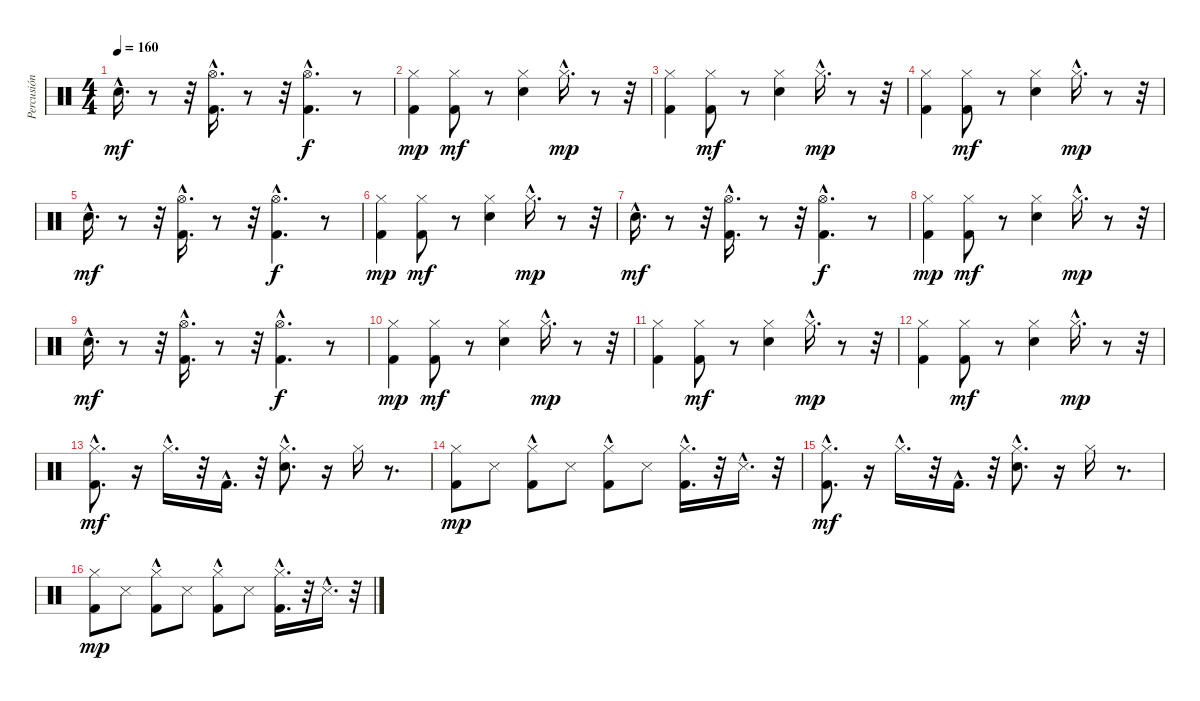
\track ("Percusión" "Percusión") {instrument percussion}
\staff {score}
\articulation defaults
\ts (4 4)
\tempo 160
\clef neutral
\ks c "Electric Snare (hit)"{hac}.16{d dy mf}
r.8 r.32 ("Kick (hit) 2"{hac} "Hi-Hat (open)").16{d} r.8 r.32 ("Kick (hit) 2"{hac} "Hi-Hat (open)"{hac}).4{d dy f} r.8 |
("Hi-Hat (closed)" "Kick (hit) 2").4{dy mp} ("Hi-Hat (closed)" "Kick (hit) 2").8{dy mf} r.8 ("Hi-Hat (closed)" "Electric Snare (hit)").4 "Hi-Hat (closed)"{hac}.16{d dy mp} r.8 r.32 |
("Hi-Hat (closed)" "Kick (hit) 2").4 ("Hi-Hat (closed)" "Kick (hit) 2").8{dy mf} r.8 ("Hi-Hat (closed)" "Electric Snare (hit)").4 "Hi-Hat (closed)"{hac}.16{d dy mp} r.8 r.32 |
("Hi-Hat (closed)" "Kick (hit) 2").4 ("Hi-Hat (closed)" "Kick (hit) 2").8{dy mf} r.8 ("Hi-Hat (closed)" "Electric Snare (hit)").4 "Hi-Hat (closed)"{hac}.16{d dy mp} r.8 r.32 |
"Electric Snare (hit)"{hac}.16{d dy mf} r.8 r.32 ("Kick (hit) 2"{hac} "Hi-Hat (open)").16{d} r.8 r.32 ("Kick (hit) 2"{hac} "Hi-Hat (open)"{hac}).4{d dy f} r.8 |
("Hi-Hat (closed)" "Kick (hit) 2").4{dy mp} ("Hi-Hat (closed)" "Kick (hit) 2").8{dy mf} r.8 ("Hi-Hat (closed)" "Electric Snare (hit)").4 "Hi-Hat (closed)"{hac}.16{d dy mp} r.8 r.32 |
"Electric Snare (hit)"{hac}.16{d dy mf} r.8 r.32 ("Kick (hit) 2"{hac} "Hi-Hat (open)").16{d} r.8 r.32 ("Kick (hit) 2"{hac} "Hi-Hat (open)"{hac}).4{d dy f} r.8 |
("Hi-Hat (closed)" "Kick (hit) 2").4{dy mp} ("Hi-Hat (closed)" "Kick (hit) 2").8{dy mf} r.8 ("Hi-Hat (closed)" "Electric Snare (hit)").4 "Hi-Hat (closed)"{hac}.16{d dy mp} r.8 r.32 |
"Electric Snare (hit)"{hac}.16{d dy mf} r.8 r.32 ("Kick (hit) 2"{hac} "Hi-Hat (open)").16{d} r.8 r.32 ("Kick (hit) 2"{hac} "Hi-Hat (open)"{hac}).4{d dy f} r.8 |
("Hi-Hat (closed)" "Kick (hit) 2").4{dy mp} ("Hi-Hat (closed)" "Kick (hit) 2").8{dy mf} r.8 ("Hi-Hat (closed)" "Electric Snare (hit)").4 "Hi-Hat (closed)"{hac}.16{d dy mp} r.8 r.32 |
("Hi-Hat (closed)" "Kick (hit) 2").4 ("Hi-Hat (closed)" "Kick (hit) 2").8{dy mf} r.8 ("Hi-Hat (closed)" "Electric Snare (hit)").4 "Hi-Hat (closed)"{hac}.16{d dy mp} r.8 r.32 |
("Hi-Hat (closed)" "Kick (hit) 2").4 ("Hi-Hat (closed)" "Kick (hit) 2").8{dy mf} r.8 ("Hi-Hat (closed)" "Electric Snare (hit)").4 "Hi-Hat (closed)"{hac}.16{d dy mp} r.8 r.32 |
("Hi-Hat (closed)"{hac} "Kick (hit) 2"{hac}).8{d dy mf} r.16 "Hi-Hat (closed)"{hac}.16{d} r.32 "Kick (hit) 2"{hac}.16{d} r.32 ("Hi-Hat (closed)"{hac} "Electric Snare (hit)"{hac}).8{d} r.16 "Hi-Hat (closed)".16 r.8{d} |
("Hi-Hat (closed)" "Kick (hit) 2").8{dy mp} "Snare (side stick) 3".8 ("Hi-Hat (closed)" "Kick (hit) 2"{hac}).8 "Snare (side stick) 3".8 ("Hi-Hat (closed)" "Kick (hit) 2"{hac}).8 "Snare (side stick) 3".8 ("Hi-Hat (closed)"{hac} "Kick (hit) 2"{hac}).16{d} r.32 "Snare (side stick) 3"{hac}.16{d} r.32 |
("Hi-Hat (closed)"{hac} "Kick (hit) 2"{hac}).8{d dy mf} r.16 "Hi-Hat (closed)"{hac}.16{d} r.32 "Kick (hit) 2"{hac}.16{d} r.32 ("Hi-Hat (closed)"{hac} "Electric Snare (hit)"{hac}).8{d} r.16 "Hi-Hat (closed)".16 r.8{d} |
("Hi-Hat (closed)" "Kick (hit) 2").8{dy mp} "Snare (side stick) 3".8 ("Hi-Hat (closed)" "Kick (hit) 2"{hac}).8 "Snare (side stick) 3".8 ("Hi-Hat (closed)" "Kick (hit) 2"{hac}).8 "Snare (side stick) 3".8 ("Hi-Hat (closed)"{hac} "Kick (hit) 2"{hac}).16{d} r.32 "Snare (side stick) 3"{hac}.16{d} r.32
